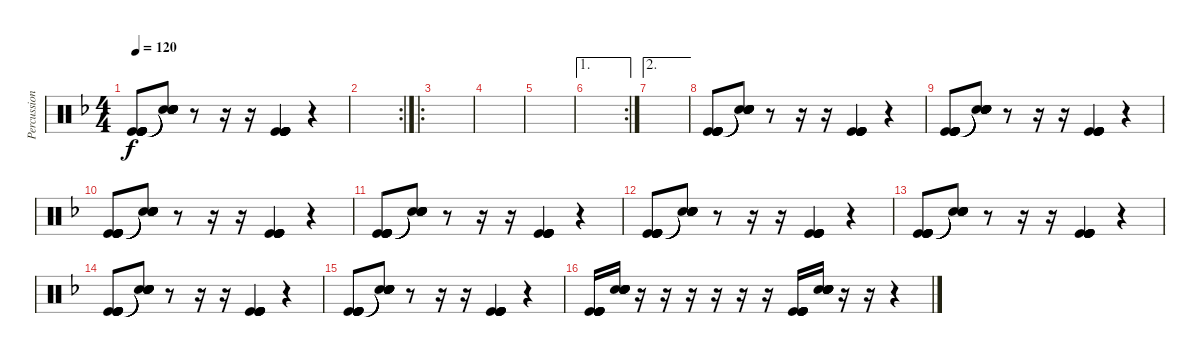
\track ("Percussion" "Percussion") {instrument percussion}
\staff {score}
\articulation defaults
\ts (4 4)
\tempo 120
\clef neutral
\ks f
("Kick (hit)" "Kick (hit)" "Kick (hit)" "Kick (hit)" "Kick (hit)" "Kick (hit)").8{dy f} ("Snare (hit)"{t} "Snare (hit)"{t} "Snare (hit)"{t} "Snare (hit)"{t} "Snare (hit)"{t} "Snare (hit)"{t}).8 r.8 r.16 r.16 ("Kick (hit)" "Kick (hit)" "Kick (hit)" "Kick (hit)" "Kick (hit)" "Kick (hit)").4 r.4 |
\rc 2
|
\ro
|
|
|
\ae 1
\rc 2
|
\ae 2
|
("Kick (hit)" "Kick (hit)" "Kick (hit)" "Kick (hit)" "Kick (hit)" "Kick (hit)").8 ("Snare (hit)"{t} "Snare (hit)"{t} "Snare (hit)"{t} "Snare (hit)"{t} "Snare (hit)"{t} "Snare (hit)"{t}).8 r.8 r.16 r.16 ("Kick (hit)" "Kick (hit)" "Kick (hit)" "Kick (hit)" "Kick (hit)" "Kick (hit)").4 r.4 |
("Kick (hit)" "Kick (hit)" "Kick (hit)" "Kick (hit)" "Kick (hit)" "Kick (hit)").8 ("Snare (hit)"{t} "Snare (hit)"{t} "Snare (hit)"{t} "Snare (hit)"{t} "Snare (hit)"{t} "Snare (hit)"{t}).8 r.8 r.16 r.16 ("Kick (hit)" "Kick (hit)" "Kick (hit)" "Kick (hit)" "Kick (hit)" "Kick (hit)").4 r.4 |
("Kick (hit)" "Kick (hit)" "Kick (hit)" "Kick (hit)" "Kick (hit)" "Kick (hit)").8 ("Snare (hit)"{t} "Snare (hit)"{t} "Snare (hit)"{t} "Snare (hit)"{t} "Snare (hit)"{t} "Snare (hit)"{t}).8 r.8 r.16 r.16 ("Kick (hit)" "Kick (hit)" "Kick (hit)" "Kick (hit)" "Kick (hit)" "Kick (hit)").4 r.4 |
("Kick (hit)" "Kick (hit)" "Kick (hit)" "Kick (hit)" "Kick (hit)" "Kick (hit)").8 ("Snare (hit)"{t} "Snare (hit)"{t} "Snare (hit)"{t} "Snare (hit)"{t} "Snare (hit)"{t} "Snare (hit)"{t}).8 r.8 r.16 r.16 ("Kick (hit)" "Kick (hit)" "Kick (hit)" "Kick (hit)" "Kick (hit)" "Kick (hit)").4 r.4 |
("Kick (hit)" "Kick (hit)" "Kick (hit)" "Kick (hit)" "Kick (hit)" "Kick (hit)").8 ("Snare (hit)"{t} "Snare (hit)"{t} "Snare (hit)"{t} "Snare (hit)"{t} "Snare (hit)"{t} "Snare (hit)"{t}).8 r.8 r.16 r.16 ("Kick (hit)" "Kick (hit)" "Kick (hit)" "Kick (hit)" "Kick (hit)" "Kick (hit)").4 r.4 |
("Kick (hit)" "Kick (hit)" "Kick (hit)" "Kick (hit)" "Kick (hit)" "Kick (hit)").8 ("Snare (hit)"{t} "Snare (hit)"{t} "Snare (hit)"{t} "Snare (hit)"{t} "Snare (hit)"{t} "Snare (hit)"{t}).8 r.8 r.16 r.16 ("Kick (hit)" "Kick (hit)" "Kick (hit)" "Kick (hit)" "Kick (hit)" "Kick (hit)").4 r.4 |
("Kick (hit)" "Kick (hit)" "Kick (hit)" "Kick (hit)" "Kick (hit)" "Kick (hit)").8 ("Snare (hit)"{t} "Snare (hit)"{t} "Snare (hit)"{t} "Snare (hit)"{t} "Snare (hit)"{t} "Snare (hit)"{t}).8 r.8 r.16 r.16 ("Kick (hit)" "Kick (hit)" "Kick (hit)" "Kick (hit)" "Kick (hit)" "Kick (hit)").4 r.4 |
("Kick (hit)" "Kick (hit)" "Kick (hit)" "Kick (hit)" "Kick (hit)" "Kick (hit)").8 ("Snare (hit)"{t} "Snare (hit)"{t} "Snare (hit)"{t} "Snare (hit)"{t} "Snare (hit)"{t} "Snare (hit)"{t}).8 r.8 r.16 r.16 ("Kick (hit)" "Kick (hit)" "Kick (hit)" "Kick (hit)" "Kick (hit)" "Kick (hit)").4 r.4 |
("Kick (hit)" "Kick (hit)" "Kick (hit)" "Kick (hit)" "Kick (hit)" "Kick (hit)").16 ("Electric Snare (hit)" "Electric Snare (hit)" "Electric Snare (hit)" "Electric Snare (hit)" "Electric Snare (hit)" "Electric Snare (hit)").16 r.16 r.16 r.16 r.16 r.16 r.16 ("Kick (hit)" "Kick (hit)" "Kick (hit)" "Kick (hit)" "Kick (hit)" "Kick (hit)").16 ("Electric Snare (hit)" "Electric Snare (hit)" "Electric Snare (hit)" "Electric Snare (hit)" "Electric Snare (hit)" "Electric Snare (hit)").16 r.16 r.16 r.4
